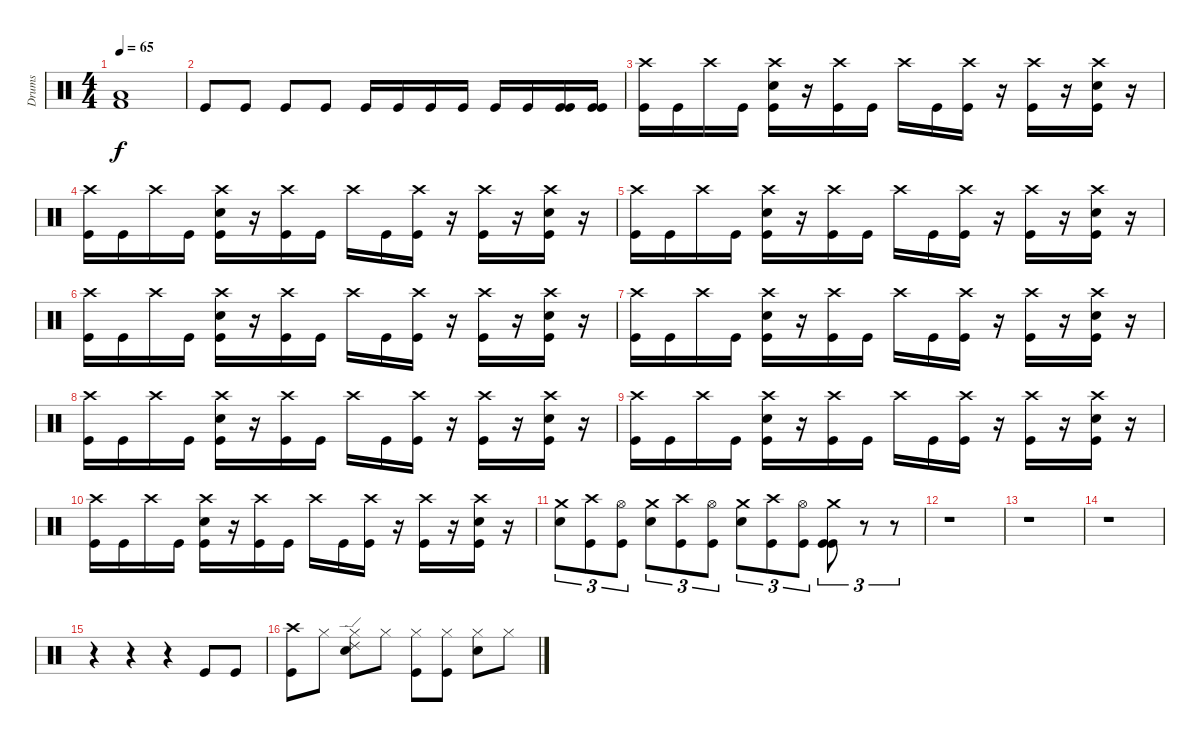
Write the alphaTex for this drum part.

\track ("Drums" "Drums") {instrument percussion}
\staff {score}
\articulation defaults
\ts (4 4)
\tempo 65
\clef neutral
\ks c
("Low Floor Tom (hit)" "Kick (hit) 2").1{dy f} |
"Kick (hit)".8 "Kick (hit)".8 "Kick (hit)".8 "Kick (hit)".8 "Kick (hit)".16 "Kick (hit)".16 "Kick (hit)".16 "Kick (hit)".16 "Kick (hit)".16 "Kick (hit)".16 ("Kick (hit)" "Kick (hit)").16 ("Kick (hit)" "Kick (hit)").16 |
("Crash high (hit)" "Kick (hit)").16 "Kick (hit)".16 "Crash high (hit)".16 "Kick (hit)".16 ("Crash high (hit)" "Snare (hit) 2" "Kick (hit)").16 r.16 ("Crash high (hit)" "Kick (hit)").16 "Kick (hit)".16 "Crash high (hit)".16 "Kick (hit)".16 ("Crash high (hit)" "Kick (hit)").16 r.16 ("Crash high (hit)" "Kick (hit)").16 r.16 ("Crash high (hit)" "Snare (hit) 2" "Kick (hit)").16 r.16 |
("Crash high (hit)" "Kick (hit)").16 "Kick (hit)".16 "Crash high (hit)".16 "Kick (hit)".16 ("Crash high (hit)" "Snare (hit) 2" "Kick (hit)").16 r.16 ("Crash high (hit)" "Kick (hit)").16 "Kick (hit)".16 "Crash high (hit)".16 "Kick (hit)".16 ("Crash high (hit)" "Kick (hit)").16 r.16 ("Crash high (hit)" "Kick (hit)").16 r.16 ("Crash high (hit)" "Snare (hit) 2" "Kick (hit)").16 r.16 |
("Crash high (hit)" "Kick (hit)").16 "Kick (hit)".16 "Crash high (hit)".16 "Kick (hit)".16 ("Crash high (hit)" "Snare (hit) 2" "Kick (hit)").16 r.16 ("Crash high (hit)" "Kick (hit)").16 "Kick (hit)".16 "Crash high (hit)".16 "Kick (hit)".16 ("Crash high (hit)" "Kick (hit)").16 r.16 ("Crash high (hit)" "Kick (hit)").16 r.16 ("Crash high (hit)" "Snare (hit) 2" "Kick (hit)").16 r.16 |
("Crash high (hit)" "Kick (hit)").16 "Kick (hit)".16 "Crash high (hit)".16 "Kick (hit)".16 ("Crash high (hit)" "Snare (hit) 2" "Kick (hit)").16 r.16 ("Crash high (hit)" "Kick (hit)").16 "Kick (hit)".16 "Crash high (hit)".16 "Kick (hit)".16 ("Crash high (hit)" "Kick (hit)").16 r.16 ("Crash high (hit)" "Kick (hit)").16 r.16 ("Crash high (hit)" "Snare (hit) 2" "Kick (hit)").16 r.16 |
("Crash high (hit)" "Kick (hit)").16 "Kick (hit)".16 "Crash high (hit)".16 "Kick (hit)".16 ("Crash high (hit)" "Snare (hit) 2" "Kick (hit)").16 r.16 ("Crash high (hit)" "Kick (hit)").16 "Kick (hit)".16 "Crash high (hit)".16 "Kick (hit)".16 ("Crash high (hit)" "Kick (hit)").16 r.16 ("Crash high (hit)" "Kick (hit)").16 r.16 ("Crash high (hit)" "Snare (hit) 2" "Kick (hit)").16 r.16 |
("Crash high (hit)" "Kick (hit)").16 "Kick (hit)".16 "Crash high (hit)".16 "Kick (hit)".16 ("Crash high (hit)" "Snare (hit) 2" "Kick (hit)").16 r.16 ("Crash high (hit)" "Kick (hit)").16 "Kick (hit)".16 "Crash high (hit)".16 "Kick (hit)".16 ("Crash high (hit)" "Kick (hit)").16 r.16 ("Crash high (hit)" "Kick (hit)").16 r.16 ("Crash high (hit)" "Snare (hit) 2" "Kick (hit)").16 r.16 |
("Crash high (hit)" "Kick (hit)").16 "Kick (hit)".16 "Crash high (hit)".16 "Kick (hit)".16 ("Crash high (hit)" "Snare (hit) 2" "Kick (hit)").16 r.16 ("Crash high (hit)" "Kick (hit)").16 "Kick (hit)".16 "Crash high (hit)".16 "Kick (hit)".16 ("Crash high (hit)" "Kick (hit)").16 r.16 ("Crash high (hit)" "Kick (hit)").16 r.16 ("Crash high (hit)" "Snare (hit) 2" "Kick (hit)").16 r.16 |
("Crash high (hit)" "Kick (hit)").16 "Kick (hit)".16 "Crash high (hit)".16 "Kick (hit)".16 ("Crash high (hit)" "Snare (hit) 2" "Kick (hit)").16 r.16 ("Crash high (hit)" "Kick (hit)").16 "Kick (hit)".16 "Crash high (hit)".16 "Kick (hit)".16 ("Crash high (hit)" "Kick (hit)").16 r.16 ("Crash high (hit)" "Kick (hit)").16 r.16 ("Crash high (hit)" "Snare (hit) 2" "Kick (hit)").16 r.16 |
("Crash medium (hit)" "Snare (hit) 2").8{tu (3 2)} ("Crash high (hit)" "Kick (hit)").8{tu (3 2)} ("Hi-Hat (open)" "Kick (hit)").8{tu (3 2)} ("Crash medium (hit)" "Snare (hit) 2").8{tu (3 2)} ("Crash high (hit)" "Kick (hit)").8{tu (3 2)} ("Hi-Hat (open)" "Kick (hit)").8{tu (3 2)} ("Crash medium (hit)" "Snare (hit) 2").8{tu (3 2)} ("Crash high (hit)" "Kick (hit)").8{tu (3 2)} ("Hi-Hat (open)" "Kick (hit)").8{tu (3 2)} ("Crash medium (hit)" "Kick (hit)" "Kick (hit)").8{tu (3 2)} r.8{tu (3 2)} r.8{tu (3 2)} |
r.1 |
r.1 |
r.1 |
r.4 r.4 r.4 "Kick (hit)".8 "Kick (hit)".8 |
("Crash high (hit)" "Kick (hit)").8 "Hi-Hat (closed)".8 ("Hi-Hat (closed)" "Ride (edge) 2" "Snare (hit) 2").8 "Hi-Hat (closed)".8 ("Hi-Hat (closed)" "Kick (hit)").8 ("Hi-Hat (closed)" "Kick (hit)").8 ("Hi-Hat (closed)" "Snare (hit) 2").8 "Hi-Hat (closed)".8
